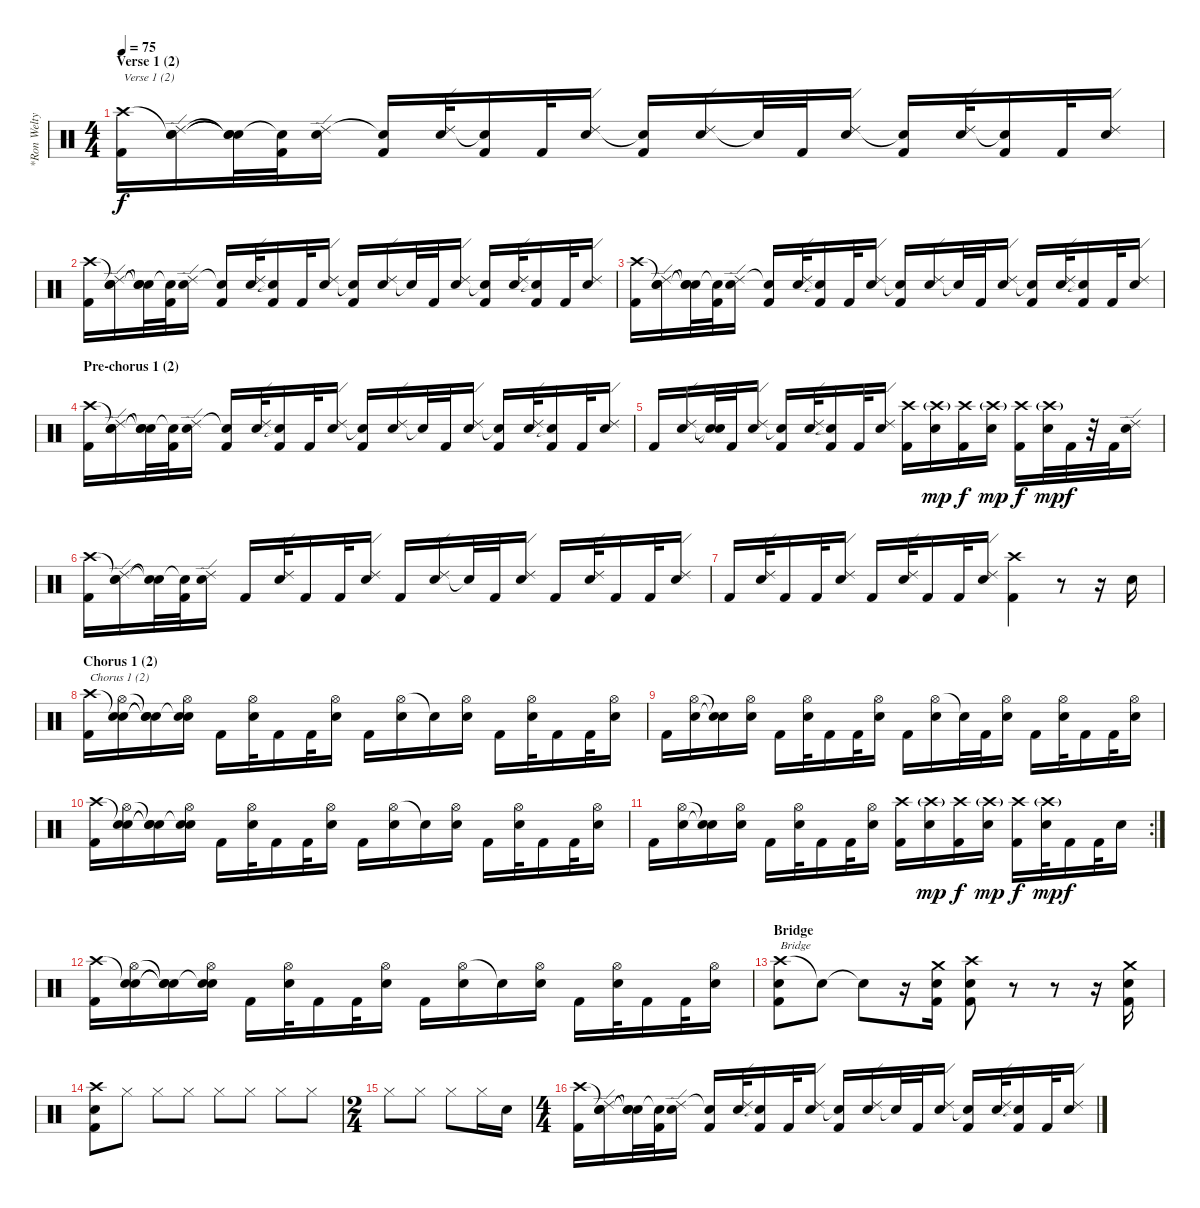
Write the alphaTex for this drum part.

\track ("*Ron Welty (Ex-drummer)" "*Ron Welty") {instrument percussion}
\staff {score}
\articulation defaults
\ts (4 4)
\section ("" "Verse 1 (2)")
\tempo 75
\clef neutral
\ks c
("Crash high (hit)" "Kick (hit) 2").16{txt "Verse 1 (2)" dy f} ("Snare (hit)"{t} "Ride (edge) 2" "Electric Snare (hit)").16 ("Snare (hit)"{t} "Snare (hit)"{t} "Snare (hit)"{t}).32 ("Snare (hit)"{t} "Kick (hit) 2").32 ("Ride (edge) 2" "Electric Snare (hit)").16 ("Snare (hit)"{t} "Kick (hit) 2").16 ("Ride (edge) 2" "Electric Snare (hit)").32 ("Snare (hit)"{t} "Kick (hit) 2").16 "Kick (hit) 2".32 ("Ride (edge) 2" "Electric Snare (hit)").16 ("Snare (hit)"{t} "Kick (hit) 2").16 ("Ride (edge) 2" "Electric Snare (hit)").16 "Snare (hit)"{t}.32 "Kick (hit) 2".32 ("Ride (edge) 2" "Electric Snare (hit)").16 ("Snare (hit)"{t} "Kick (hit) 2").16 ("Ride (edge) 2" "Electric Snare (hit)").32 ("Snare (hit)"{t} "Kick (hit) 2").16 "Kick (hit) 2".32 ("Ride (edge) 2" "Electric Snare (hit)").16 |
("Crash high (hit)" "Kick (hit) 2").16 ("Snare (hit)"{t} "Ride (edge) 2" "Electric Snare (hit)").16 ("Snare (hit)"{t} "Snare (hit)"{t} "Snare (hit)"{t}).32 ("Snare (hit)"{t} "Kick (hit) 2").32 ("Ride (edge) 2" "Electric Snare (hit)").16 ("Snare (hit)"{t} "Kick (hit) 2").16 ("Ride (edge) 2" "Electric Snare (hit)").32 ("Snare (hit)"{t} "Kick (hit) 2").16 "Kick (hit) 2".32 ("Ride (edge) 2" "Electric Snare (hit)").16 ("Snare (hit)"{t} "Kick (hit) 2").16 ("Ride (edge) 2" "Electric Snare (hit)").16 "Snare (hit)"{t}.32 "Kick (hit) 2".32 ("Ride (edge) 2" "Electric Snare (hit)").16 ("Snare (hit)"{t} "Kick (hit) 2").16 ("Ride (edge) 2" "Electric Snare (hit)").32 ("Snare (hit)"{t} "Kick (hit) 2").16 "Kick (hit) 2".32 ("Ride (edge) 2" "Electric Snare (hit)").16 |
("Crash high (hit)" "Kick (hit) 2").16 ("Snare (hit)"{t} "Ride (edge) 2" "Electric Snare (hit)").16 ("Snare (hit)"{t} "Snare (hit)"{t} "Snare (hit)"{t}).32 ("Snare (hit)"{t} "Kick (hit) 2").32 ("Ride (edge) 2" "Electric Snare (hit)").16 ("Snare (hit)"{t} "Kick (hit) 2").16 ("Ride (edge) 2" "Electric Snare (hit)").32 ("Snare (hit)"{t} "Kick (hit) 2").16 "Kick (hit) 2".32 ("Ride (edge) 2" "Electric Snare (hit)").16 ("Snare (hit)"{t} "Kick (hit) 2").16 ("Ride (edge) 2" "Electric Snare (hit)").16 "Snare (hit)"{t}.32 "Kick (hit) 2".32 ("Ride (edge) 2" "Electric Snare (hit)").16 ("Snare (hit)"{t} "Kick (hit) 2").16 ("Ride (edge) 2" "Electric Snare (hit)").32 ("Snare (hit)"{t} "Kick (hit) 2").16 "Kick (hit) 2".32 ("Ride (edge) 2" "Electric Snare (hit)").16 |
\section ("" "Pre-chorus 1 (2)")
("Crash high (hit)" "Kick (hit) 2").16 ("Snare (hit)"{t} "Ride (edge) 2" "Electric Snare (hit)").16 ("Snare (hit)"{t} "Snare (hit)"{t} "Snare (hit)"{t}).32 ("Snare (hit)"{t} "Kick (hit) 2").32 ("Ride (edge) 2" "Electric Snare (hit)").16 ("Snare (hit)"{t} "Kick (hit) 2").16 ("Ride (edge) 2" "Electric Snare (hit)").32 ("Snare (hit)"{t} "Kick (hit) 2").16 "Kick (hit) 2".32 ("Ride (edge) 2" "Electric Snare (hit)").16 ("Snare (hit)"{t} "Kick (hit) 2").16 ("Ride (edge) 2" "Electric Snare (hit)").16 "Snare (hit)"{t}.32 "Kick (hit) 2".32 ("Ride (edge) 2" "Electric Snare (hit)").16 ("Snare (hit)"{t} "Kick (hit) 2").16 ("Ride (edge) 2" "Electric Snare (hit)").32 ("Snare (hit)"{t} "Kick (hit) 2").16 "Kick (hit) 2".32 ("Ride (edge) 2" "Electric Snare (hit)").16 |
"Kick (hit) 2".16 ("Ride (edge) 2" "Electric Snare (hit)").16 ("Snare (hit)"{t} "Snare (hit)"{t}).32 "Kick (hit) 2".32 ("Ride (edge) 2" "Electric Snare (hit)").16 ("Snare (hit)"{t} "Kick (hit) 2").16 ("Ride (edge) 2" "Electric Snare (hit)").32 ("Snare (hit)"{t} "Kick (hit) 2").16 "Kick (hit) 2".32 ("Ride (edge) 2" "Electric Snare (hit)").16 ("Crash high (hit)" "Kick (hit) 2").16 ("Crash high (hit)"{g} "Electric Snare (hit)").16{dy mp} ("Crash high (hit)" "Kick (hit) 2").16{dy f} ("Crash high (hit)"{g} "Electric Snare (hit)").16{dy mp} ("Crash high (hit)" "Kick (hit) 2").16{dy f} ("Crash high (hit)"{g} "Electric Snare (hit)").32{dy mp} "Kick (hit) 2".32{dy f} r.32 "Kick (hit) 2".32 ("Ride (edge) 2" "Electric Snare (hit)").16 |
("Crash high (hit)" "Kick (hit) 2").16 ("Snare (hit)"{t} "Ride (edge) 2" "Electric Snare (hit)").16 ("Snare (hit)"{t} "Snare (hit)"{t}).32 ("Snare (hit)"{t} "Kick (hit) 2").32 ("Ride (edge) 2" "Electric Snare (hit)").16 "Kick (hit) 2".16 ("Ride (edge) 2" "Electric Snare (hit)").32 "Kick (hit) 2".16 "Kick (hit) 2".32 ("Ride (edge) 2" "Electric Snare (hit)").16 "Kick (hit) 2".16 ("Ride (edge) 2" "Electric Snare (hit)").16 "Snare (hit)"{t}.32 "Kick (hit) 2".32 ("Ride (edge) 2" "Electric Snare (hit)").16 "Kick (hit) 2".16 ("Ride (edge) 2" "Electric Snare (hit)").32 "Kick (hit) 2".16 "Kick (hit) 2".32 ("Ride (edge) 2" "Electric Snare (hit)").16 |
"Kick (hit) 2".16 ("Ride (edge) 2" "Electric Snare (hit)").32 "Kick (hit) 2".16 "Kick (hit) 2".32 ("Ride (edge) 2" "Electric Snare (hit)").16 "Kick (hit) 2".16 ("Ride (edge) 2" "Electric Snare (hit)").32 "Kick (hit) 2".16 "Kick (hit) 2".32 ("Ride (edge) 2" "Electric Snare (hit)").16 ("Crash high (hit)" "Kick (hit) 2").4 r.8 r.16 "Electric Snare (hit)".16 |
\section ("" "Chorus 1 (2)")
("Crash high (hit)" "Kick (hit) 2").16{txt "Chorus 1 (2)"} ("Snare (hit)"{t} "Hi-Hat (open)" "Electric Snare (hit)").16 ("Snare (hit)"{t} "Snare (hit)"{t} "Snare (hit)"{t}).16 ("Snare (hit)"{t} "Hi-Hat (open)" "Electric Snare (hit)").16 "Kick (hit) 2".16 ("Hi-Hat (open)" "Electric Snare (hit)").32 "Kick (hit) 2".16 "Kick (hit) 2".32 ("Hi-Hat (open)" "Electric Snare (hit)").16 "Kick (hit) 2".16 ("Hi-Hat (open)" "Electric Snare (hit)").16 "Snare (hit)"{t}.16 ("Hi-Hat (open)" "Electric Snare (hit)").16 "Kick (hit) 2".16 ("Hi-Hat (open)" "Electric Snare (hit)").32 "Kick (hit) 2".16 "Kick (hit) 2".32 ("Hi-Hat (open)" "Electric Snare (hit)").16 |
"Kick (hit) 2".16 ("Hi-Hat (open)" "Electric Snare (hit)").16 ("Snare (hit)"{t} "Snare (hit)"{t}).16 ("Hi-Hat (open)" "Electric Snare (hit)").16 "Kick (hit) 2".16 ("Hi-Hat (open)" "Electric Snare (hit)").32 "Kick (hit) 2".16 "Kick (hit) 2".32 ("Hi-Hat (open)" "Electric Snare (hit)").16 "Kick (hit) 2".16 ("Hi-Hat (open)" "Electric Snare (hit)").16 "Snare (hit)"{t}.32 "Kick (hit) 2".32 ("Hi-Hat (open)" "Electric Snare (hit)").16 "Kick (hit) 2".16 ("Hi-Hat (open)" "Electric Snare (hit)").32 "Kick (hit) 2".16 "Kick (hit) 2".32 ("Hi-Hat (open)" "Electric Snare (hit)").16 |
("Crash high (hit)" "Kick (hit) 2").16 ("Snare (hit)"{t} "Hi-Hat (open)" "Electric Snare (hit)").16 ("Snare (hit)"{t} "Snare (hit)"{t} "Snare (hit)"{t}).16 ("Snare (hit)"{t} "Hi-Hat (open)" "Electric Snare (hit)").16 "Kick (hit) 2".16 ("Hi-Hat (open)" "Electric Snare (hit)").32 "Kick (hit) 2".16 "Kick (hit) 2".32 ("Hi-Hat (open)" "Electric Snare (hit)").16 "Kick (hit) 2".16 ("Hi-Hat (open)" "Electric Snare (hit)").16 "Snare (hit)"{t}.16 ("Hi-Hat (open)" "Electric Snare (hit)").16 "Kick (hit) 2".16 ("Hi-Hat (open)" "Electric Snare (hit)").32 "Kick (hit) 2".16 "Kick (hit) 2".32 ("Hi-Hat (open)" "Electric Snare (hit)").16 |
\rc 2 "Kick (hit) 2".16
("Hi-Hat (open)" "Electric Snare (hit)").16 ("Snare (hit)"{t} "Snare (hit)"{t}).16 ("Hi-Hat (open)" "Electric Snare (hit)").16 "Kick (hit) 2".16 ("Hi-Hat (open)" "Electric Snare (hit)").32 "Kick (hit) 2".16 "Kick (hit) 2".32 ("Hi-Hat (open)" "Electric Snare (hit)").16 ("Crash high (hit)" "Kick (hit) 2").16 ("Crash high (hit)"{g} "Electric Snare (hit)").16{dy mp} ("Crash high (hit)" "Kick (hit) 2").16{dy f} ("Crash high (hit)"{g} "Electric Snare (hit)").16{dy mp} ("Crash high (hit)" "Kick (hit) 2").16{dy f} ("Crash high (hit)"{g} "Electric Snare (hit)").32{dy mp} "Kick (hit) 2".16{dy f} "Kick (hit) 2".32 "Electric Snare (hit)".16 |
("Crash high (hit)" "Kick (hit) 2").16 ("Snare (hit)"{t} "Hi-Hat (open)" "Electric Snare (hit)").16 ("Snare (hit)"{t} "Snare (hit)"{t} "Snare (hit)"{t}).16 ("Snare (hit)"{t} "Hi-Hat (open)" "Electric Snare (hit)").16 "Kick (hit) 2".16 ("Hi-Hat (open)" "Electric Snare (hit)").32 "Kick (hit) 2".16 "Kick (hit) 2".32 ("Hi-Hat (open)" "Electric Snare (hit)").16 "Kick (hit) 2".16 ("Hi-Hat (open)" "Electric Snare (hit)").16 "Snare (hit)"{t}.16 ("Hi-Hat (open)" "Electric Snare (hit)").16 "Kick (hit) 2".16 ("Hi-Hat (open)" "Electric Snare (hit)").32 "Kick (hit) 2".16 "Kick (hit) 2".32 ("Hi-Hat (open)" "Electric Snare (hit)").16 |
\section ("" "Bridge")
("Crash high (hit)" "Electric Snare (hit)" "Kick (hit) 2").8{txt "Bridge"} "Snare (hit)"{t}.8 "Snare (hit)"{t}.8 r.16 ("Crash medium (hit)" "Electric Snare (hit)" "Kick (hit) 2").16 ("Crash high (hit)" "Electric Snare (hit)" "Kick (hit) 2").8 r.8 r.8 r.16 ("Crash medium (hit)" "Electric Snare (hit)" "Kick (hit) 2").16 |
("Crash high (hit)" "Electric Snare (hit)" "Kick (hit) 2").8 "Hi-Hat (closed)".8 "Hi-Hat (closed)".8 "Hi-Hat (closed)".8 "Hi-Hat (closed)".8 "Hi-Hat (closed)".8 "Hi-Hat (closed)".8 "Hi-Hat (closed)".8 |
\ts (2 4)
"Hi-Hat (closed)".8 "Hi-Hat (closed)".8 "Hi-Hat (closed)".8 "Hi-Hat (closed)".16 "Electric Snare (hit)".16 |
\ts (4 4)
("Crash high (hit)" "Kick (hit) 2").16 ("Snare (hit)"{t} "Ride (edge) 2" "Electric Snare (hit)").16 ("Snare (hit)"{t} "Snare (hit)"{t} "Snare (hit)"{t}).32 ("Snare (hit)"{t} "Kick (hit) 2").32 ("Ride (edge) 2" "Electric Snare (hit)").16 ("Snare (hit)"{t} "Kick (hit) 2").16 ("Ride (edge) 2" "Electric Snare (hit)").32 ("Snare (hit)"{t} "Kick (hit) 2").16 "Kick (hit) 2".32 ("Ride (edge) 2" "Electric Snare (hit)").16 ("Snare (hit)"{t} "Kick (hit) 2").16 ("Ride (edge) 2" "Electric Snare (hit)").16 "Snare (hit)"{t}.32 "Kick (hit) 2".32 ("Ride (edge) 2" "Electric Snare (hit)").16 ("Snare (hit)"{t} "Kick (hit) 2").16 ("Ride (edge) 2" "Electric Snare (hit)").32 ("Snare (hit)"{t} "Kick (hit) 2").16 "Kick (hit) 2".32 ("Ride (edge) 2" "Electric Snare (hit)").16
